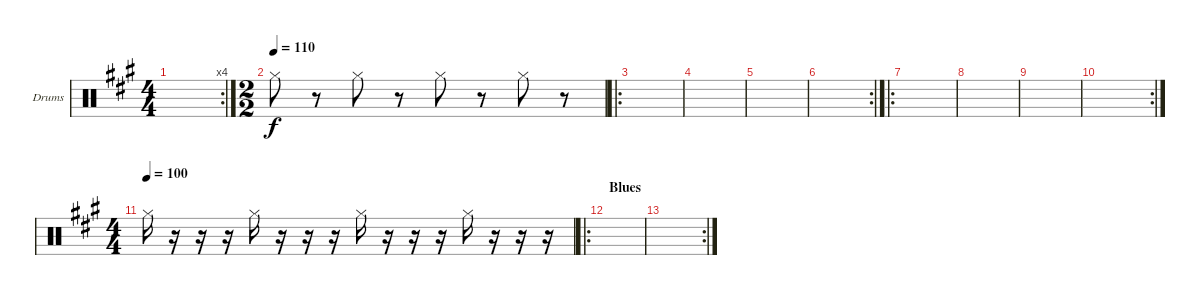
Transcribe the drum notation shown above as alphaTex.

\defaultSystemsLayout 4
\bracketExtendMode groupsimilarinstruments
\firstSystemTrackNameOrientation horizontal
\otherSystemsTrackNameOrientation horizontal
\track ("Drumkit" "Drums") {instrument percussion}
\staff {score}
\articulation defaults
\rc 4
\ts (4 4)
\tempo (112 hide)
\clef neutral
\scale
0.243243
\ks a
|
\ts (2 2)
\tempo (110)
"Hi-Hat (closed)".8{beam split} r.8{beam split} "Hi-Hat (closed)".8{beam split} r.8{beam split} "Hi-Hat (closed)".8{beam split} r.8{beam split} "Hi-Hat (closed)".8{beam split} r.8 |
\ro
\tempo (110 hide)
\scale
0.53668 |
\scale
0.220077 |
\scale
0.301587 |
\rc 2
\scale
0.333333 |
\ro
\scale
0.365079 |
\scale
0.322034 |
\scale
0.322034 |
\rc 2
\scale
0.355932 |
\ts (4 4)
\tempo 100
\scale
0.490347 "Hi-Hat (closed)".16 r.16 r.16 r.16 "Hi-Hat (closed)".16 r.16 r.16 r.16 "Hi-Hat (closed)".16 r.16 r.16 r.16 "Hi-Hat (closed)".16 r.16 r.16 r.16 |
\ro
\section ("" "Blues ")
\scale
0.266409 |
\rc 2
\scale
0.243243 |
\scale
0.333333 |
\scale
0.333333 |
\scale
0.333333
